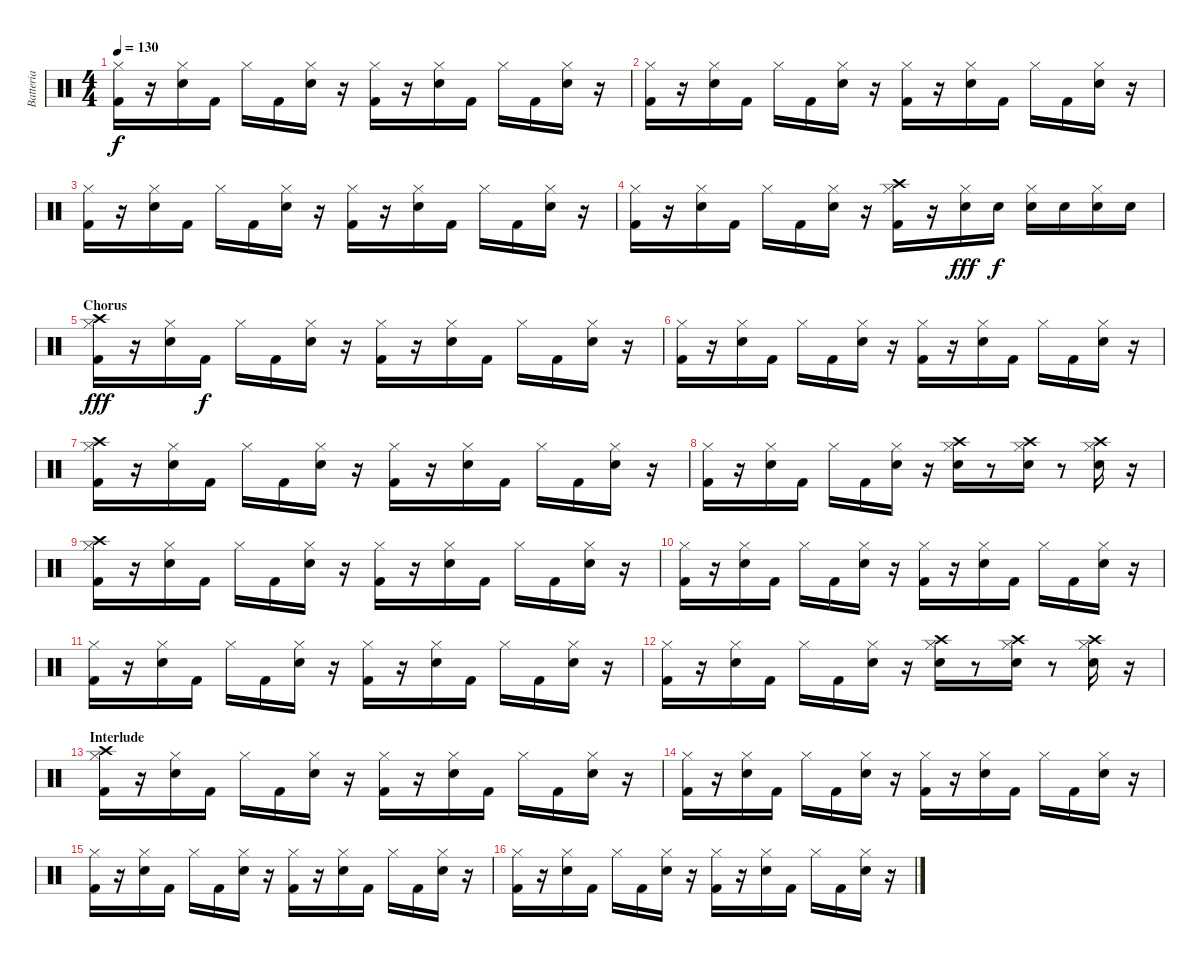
\track ("Batteria" "Batteria") {instrument percussion}
\staff {score}
\articulation defaults
\ts (4 4)
\tempo 130
\clef neutral
\ks c
("Kick (hit) 2" "Hi-Hat (closed)").16{dy f} r.16 ("Snare (hit) 2" "Hi-Hat (closed)").16 "Kick (hit) 2".16 "Hi-Hat (closed)".16 "Kick (hit) 2".16 ("Snare (hit) 2" "Hi-Hat (closed)").16 r.16 ("Kick (hit) 2" "Hi-Hat (closed)").16 r.16 ("Snare (hit) 2" "Hi-Hat (closed)").16 "Kick (hit) 2".16 "Hi-Hat (closed)".16 "Kick (hit) 2".16 ("Snare (hit) 2" "Hi-Hat (closed)").16 r.16 |
("Kick (hit) 2" "Hi-Hat (closed)").16 r.16 ("Snare (hit) 2" "Hi-Hat (closed)").16 "Kick (hit) 2".16 "Hi-Hat (closed)".16 "Kick (hit) 2".16 ("Snare (hit) 2" "Hi-Hat (closed)").16 r.16 ("Kick (hit) 2" "Hi-Hat (closed)").16 r.16 ("Snare (hit) 2" "Hi-Hat (closed)").16 "Kick (hit) 2".16 "Hi-Hat (closed)".16 "Kick (hit) 2".16 ("Snare (hit) 2" "Hi-Hat (closed)").16 r.16 |
("Kick (hit) 2" "Hi-Hat (closed)").16 r.16 ("Snare (hit) 2" "Hi-Hat (closed)").16 "Kick (hit) 2".16 "Hi-Hat (closed)".16 "Kick (hit) 2".16 ("Snare (hit) 2" "Hi-Hat (closed)").16 r.16 ("Kick (hit) 2" "Hi-Hat (closed)").16 r.16 ("Snare (hit) 2" "Hi-Hat (closed)").16 "Kick (hit) 2".16 "Hi-Hat (closed)".16 "Kick (hit) 2".16 ("Snare (hit) 2" "Hi-Hat (closed)").16 r.16 |
("Kick (hit) 2" "Hi-Hat (closed)").16 r.16 ("Snare (hit) 2" "Hi-Hat (closed)").16 "Kick (hit) 2".16 "Hi-Hat (closed)".16 "Kick (hit) 2".16 ("Snare (hit) 2" "Hi-Hat (closed)").16 r.16 ("Crash high (hit)" "Kick (hit) 2" "Hi-Hat (closed)").16 r.16 ("Snare (hit) 2" "Hi-Hat (closed)").16{dy fff} "Snare (hit) 2".16{dy f} ("Snare (hit) 2" "Hi-Hat (closed)").16 "Snare (hit) 2".16 ("Snare (hit) 2" "Hi-Hat (closed)").16 "Snare (hit) 2".16 |
\section ("" "Chorus")
("Kick (hit) 2" "Crash high (hit)" "Hi-Hat (closed)").16{dy fff} r.16 ("Snare (hit) 2" "Hi-Hat (closed)").16 "Kick (hit) 2".16{dy f} "Hi-Hat (closed)".16 "Kick (hit) 2".16 ("Snare (hit) 2" "Hi-Hat (closed)").16 r.16 ("Kick (hit) 2" "Hi-Hat (closed)").16 r.16 ("Snare (hit) 2" "Hi-Hat (closed)").16 "Kick (hit) 2".16 "Hi-Hat (closed)".16 "Kick (hit) 2".16 ("Snare (hit) 2" "Hi-Hat (closed)").16 r.16 |
("Kick (hit) 2" "Hi-Hat (closed)").16 r.16 ("Snare (hit) 2" "Hi-Hat (closed)").16 "Kick (hit) 2".16 "Hi-Hat (closed)".16 "Kick (hit) 2".16 ("Snare (hit) 2" "Hi-Hat (closed)").16 r.16 ("Kick (hit) 2" "Hi-Hat (closed)").16 r.16 ("Snare (hit) 2" "Hi-Hat (closed)").16 "Kick (hit) 2".16 "Hi-Hat (closed)".16 "Kick (hit) 2".16 ("Snare (hit) 2" "Hi-Hat (closed)").16 r.16 |
("Kick (hit) 2" "Crash high (hit)" "Hi-Hat (closed)").16 r.16 ("Snare (hit) 2" "Hi-Hat (closed)").16 "Kick (hit) 2".16 "Hi-Hat (closed)".16 "Kick (hit) 2".16 ("Snare (hit) 2" "Hi-Hat (closed)").16 r.16 ("Kick (hit) 2" "Hi-Hat (closed)").16 r.16 ("Snare (hit) 2" "Hi-Hat (closed)").16 "Kick (hit) 2".16 "Hi-Hat (closed)".16 "Kick (hit) 2".16 ("Snare (hit) 2" "Hi-Hat (closed)").16 r.16 |
("Kick (hit) 2" "Hi-Hat (closed)").16 r.16 ("Snare (hit) 2" "Hi-Hat (closed)").16 "Kick (hit) 2".16 "Hi-Hat (closed)".16 "Kick (hit) 2".16 ("Snare (hit) 2" "Hi-Hat (closed)").16 r.16 ("Snare (hit) 2" "Crash high (hit)" "Hi-Hat (closed)").16 r.8 ("Snare (hit) 2" "Crash high (hit)" "Hi-Hat (closed)").16 r.8 ("Snare (hit) 2" "Crash high (hit)" "Hi-Hat (closed)").16 r.16 |
("Kick (hit) 2" "Crash high (hit)" "Hi-Hat (closed)").16 r.16 ("Snare (hit) 2" "Hi-Hat (closed)").16 "Kick (hit) 2".16 "Hi-Hat (closed)".16 "Kick (hit) 2".16 ("Snare (hit) 2" "Hi-Hat (closed)").16 r.16 ("Kick (hit) 2" "Hi-Hat (closed)").16 r.16 ("Snare (hit) 2" "Hi-Hat (closed)").16 "Kick (hit) 2".16 "Hi-Hat (closed)".16 "Kick (hit) 2".16 ("Snare (hit) 2" "Hi-Hat (closed)").16 r.16 |
("Kick (hit) 2" "Hi-Hat (closed)").16 r.16 ("Snare (hit) 2" "Hi-Hat (closed)").16 "Kick (hit) 2".16 "Hi-Hat (closed)".16 "Kick (hit) 2".16 ("Snare (hit) 2" "Hi-Hat (closed)").16 r.16 ("Kick (hit) 2" "Hi-Hat (closed)").16 r.16 ("Snare (hit) 2" "Hi-Hat (closed)").16 "Kick (hit) 2".16 "Hi-Hat (closed)".16 "Kick (hit) 2".16 ("Snare (hit) 2" "Hi-Hat (closed)").16 r.16 |
("Kick (hit) 2" "Hi-Hat (closed)").16 r.16 ("Snare (hit) 2" "Hi-Hat (closed)").16 "Kick (hit) 2".16 "Hi-Hat (closed)".16 "Kick (hit) 2".16 ("Snare (hit) 2" "Hi-Hat (closed)").16 r.16 ("Kick (hit) 2" "Hi-Hat (closed)").16 r.16 ("Snare (hit) 2" "Hi-Hat (closed)").16 "Kick (hit) 2".16 "Hi-Hat (closed)".16 "Kick (hit) 2".16 ("Snare (hit) 2" "Hi-Hat (closed)").16 r.16 |
("Kick (hit) 2" "Hi-Hat (closed)").16 r.16 ("Snare (hit) 2" "Hi-Hat (closed)").16 "Kick (hit) 2".16 "Hi-Hat (closed)".16 "Kick (hit) 2".16 ("Snare (hit) 2" "Hi-Hat (closed)").16 r.16 ("Snare (hit) 2" "Crash high (hit)" "Hi-Hat (closed)").16 r.8 ("Snare (hit) 2" "Crash high (hit)" "Hi-Hat (closed)").16 r.8 ("Snare (hit) 2" "Crash high (hit)" "Hi-Hat (closed)").16 r.16 |
\section ("" "Interlude")
("Kick (hit) 2" "Crash high (hit)" "Hi-Hat (closed)").16 r.16 ("Snare (hit) 2" "Hi-Hat (closed)").16 "Kick (hit) 2".16 "Hi-Hat (closed)".16 "Kick (hit) 2".16 ("Snare (hit) 2" "Hi-Hat (closed)").16 r.16 ("Kick (hit) 2" "Hi-Hat (closed)").16 r.16 ("Snare (hit) 2" "Hi-Hat (closed)").16 "Kick (hit) 2".16 "Hi-Hat (closed)".16 "Kick (hit) 2".16 ("Snare (hit) 2" "Hi-Hat (closed)").16 r.16 |
("Kick (hit) 2" "Hi-Hat (closed)").16 r.16 ("Snare (hit) 2" "Hi-Hat (closed)").16 "Kick (hit) 2".16 "Hi-Hat (closed)".16 "Kick (hit) 2".16 ("Snare (hit) 2" "Hi-Hat (closed)").16 r.16 ("Kick (hit) 2" "Hi-Hat (closed)").16 r.16 ("Snare (hit) 2" "Hi-Hat (closed)").16 "Kick (hit) 2".16 "Hi-Hat (closed)".16 "Kick (hit) 2".16 ("Snare (hit) 2" "Hi-Hat (closed)").16 r.16 |
("Kick (hit) 2" "Hi-Hat (closed)").16 r.16 ("Snare (hit) 2" "Hi-Hat (closed)").16 "Kick (hit) 2".16 "Hi-Hat (closed)".16 "Kick (hit) 2".16 ("Snare (hit) 2" "Hi-Hat (closed)").16 r.16 ("Kick (hit) 2" "Hi-Hat (closed)").16 r.16 ("Snare (hit) 2" "Hi-Hat (closed)").16 "Kick (hit) 2".16 "Hi-Hat (closed)".16 "Kick (hit) 2".16 ("Snare (hit) 2" "Hi-Hat (closed)").16 r.16 |
("Kick (hit) 2" "Hi-Hat (closed)").16 r.16 ("Snare (hit) 2" "Hi-Hat (closed)").16 "Kick (hit) 2".16 "Hi-Hat (closed)".16 "Kick (hit) 2".16 ("Snare (hit) 2" "Hi-Hat (closed)").16 r.16 ("Kick (hit) 2" "Hi-Hat (closed)").16 r.16 ("Snare (hit) 2" "Hi-Hat (closed)").16 "Kick (hit) 2".16 "Hi-Hat (closed)".16 "Kick (hit) 2".16 ("Snare (hit) 2" "Hi-Hat (closed)").16 r.16
